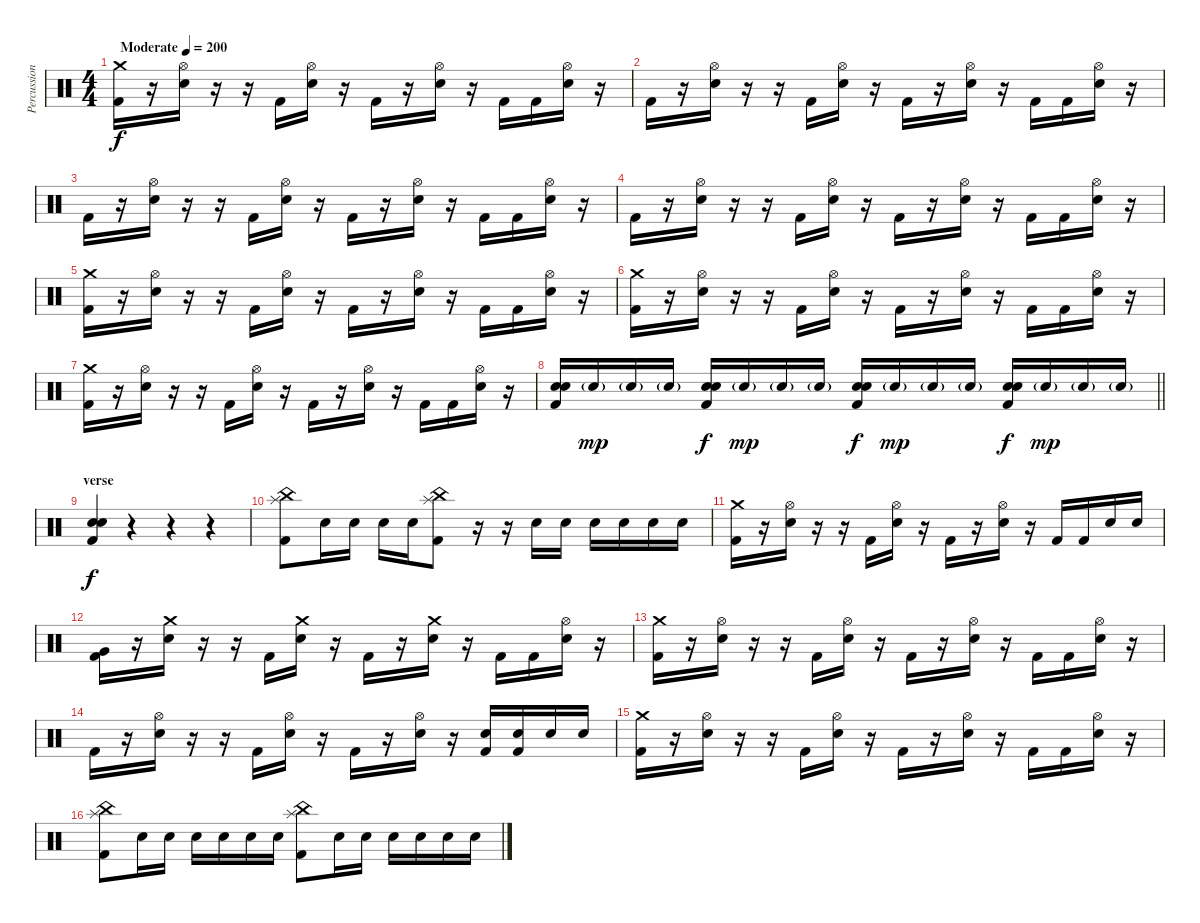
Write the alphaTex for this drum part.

\track ("Percussion" "Percussion") {instrument percussion}
\staff {score}
\articulation defaults
\ts (4 4)
\tempo (200 "Moderate")
\clef neutral
\ks c
("Crash medium (hit)" "Kick (hit) 2").16{dy f} r.16 ("Hi-Hat (open)" "Electric Snare (hit)").16 r.16 r.16 "Kick (hit) 2".16 ("Hi-Hat (open)" "Electric Snare (hit)").16 r.16 "Kick (hit) 2".16 r.16 ("Hi-Hat (open)" "Electric Snare (hit)").16 r.16 "Kick (hit) 2".16 "Kick (hit) 2".16 ("Hi-Hat (open)" "Electric Snare (hit)").16 r.16 |
"Kick (hit) 2".16 r.16 ("Hi-Hat (open)" "Electric Snare (hit)").16 r.16 r.16 "Kick (hit) 2".16 ("Hi-Hat (open)" "Electric Snare (hit)").16 r.16 "Kick (hit) 2".16 r.16 ("Hi-Hat (open)" "Electric Snare (hit)").16 r.16 "Kick (hit) 2".16 "Kick (hit) 2".16 ("Hi-Hat (open)" "Electric Snare (hit)").16 r.16 |
"Kick (hit) 2".16 r.16 ("Hi-Hat (open)" "Electric Snare (hit)").16 r.16 r.16 "Kick (hit) 2".16 ("Hi-Hat (open)" "Electric Snare (hit)").16 r.16 "Kick (hit) 2".16 r.16 ("Hi-Hat (open)" "Electric Snare (hit)").16 r.16 "Kick (hit) 2".16 "Kick (hit) 2".16 ("Hi-Hat (open)" "Electric Snare (hit)").16 r.16 |
"Kick (hit) 2".16 r.16 ("Hi-Hat (open)" "Electric Snare (hit)").16 r.16 r.16 "Kick (hit) 2".16 ("Hi-Hat (open)" "Electric Snare (hit)").16 r.16 "Kick (hit) 2".16 r.16 ("Hi-Hat (open)" "Electric Snare (hit)").16 r.16 "Kick (hit) 2".16 "Kick (hit) 2".16 ("Hi-Hat (open)" "Electric Snare (hit)").16 r.16 |
("Crash medium (hit)" "Kick (hit) 2").16 r.16 ("Hi-Hat (open)" "Electric Snare (hit)").16 r.16 r.16 "Kick (hit) 2".16 ("Hi-Hat (open)" "Electric Snare (hit)").16 r.16 "Kick (hit) 2".16 r.16 ("Hi-Hat (open)" "Electric Snare (hit)").16 r.16 "Kick (hit) 2".16 "Kick (hit) 2".16 ("Hi-Hat (open)" "Electric Snare (hit)").16 r.16 |
("Kick (hit) 2" "Crash medium (hit)").16 r.16 ("Hi-Hat (open)" "Electric Snare (hit)").16 r.16 r.16 "Kick (hit) 2".16 ("Hi-Hat (open)" "Electric Snare (hit)").16 r.16 "Kick (hit) 2".16 r.16 ("Hi-Hat (open)" "Electric Snare (hit)").16 r.16 "Kick (hit) 2".16 "Kick (hit) 2".16 ("Hi-Hat (open)" "Electric Snare (hit)").16 r.16 |
("Crash medium (hit)" "Kick (hit) 2").16 r.16 ("Hi-Hat (open)" "Electric Snare (hit)").16 r.16 r.16 "Kick (hit) 2".16 ("Hi-Hat (open)" "Electric Snare (hit)").16 r.16 "Kick (hit) 2".16 r.16 ("Hi-Hat (open)" "Electric Snare (hit)").16 r.16 "Kick (hit) 2".16 "Kick (hit) 2".16 ("Hi-Hat (open)" "Electric Snare (hit)").16 r.16 |
\barLineRight lightlight
("Electric Snare (hit)" "Electric Snare (hit)" "Kick (hit) 2").16 "Electric Snare (hit)"{g}.16{dy mp} "Electric Snare (hit)"{g}.16 "Electric Snare (hit)"{g}.16 ("Electric Snare (hit)" "Electric Snare (hit)" "Kick (hit) 2").16{dy f} "Electric Snare (hit)"{g}.16{dy mp} "Electric Snare (hit)"{g}.16 "Electric Snare (hit)"{g}.16 ("Electric Snare (hit)" "Electric Snare (hit)" "Kick (hit) 2").16{dy f} "Electric Snare (hit)"{g}.16{dy mp} "Electric Snare (hit)"{g}.16 "Electric Snare (hit)"{g}.16 ("Electric Snare (hit)" "Electric Snare (hit)" "Kick (hit) 2").16{dy f} "Electric Snare (hit)"{g}.16{dy mp} "Electric Snare (hit)"{g}.16 "Electric Snare (hit)"{g}.16 |
\section ("" "verse")
("Kick (hit) 2" "Electric Snare (hit)" "Electric Snare (hit)").4{bd 60 dy f} r.4 r.4 r.4 |
("Kick (hit) 2" "China (hit)" "Splash (hit)").8 "Electric Snare (hit)".16 "Electric Snare (hit)".16 "Electric Snare (hit)".16 "Electric Snare (hit)".16 ("Kick (hit) 2" "China (hit)" "Splash (hit)").8 r.16 r.16 "Electric Snare (hit)".16 "Electric Snare (hit)".16 "Electric Snare (hit)".16 "Electric Snare (hit)".16 "Electric Snare (hit)".16 "Electric Snare (hit)".16 |
("Kick (hit) 2" "Crash medium (hit)").16 r.16 ("Hi-Hat (open)" "Electric Snare (hit)").16 r.16 r.16 "Kick (hit) 2".16 ("Hi-Hat (open)" "Electric Snare (hit)").16 r.16 "Kick (hit) 2".16 r.16 ("Hi-Hat (open)" "Electric Snare (hit)").16 r.16 "Kick (hit) 2".16 "Kick (hit) 2".16 "Electric Snare (hit)".16 "Electric Snare (hit)".16 |
("Kick (hit) 2" "Very Low Tom (hit)").16 r.16 ("Crash medium (hit)" "Electric Snare (hit)").16 r.16 r.16 "Kick (hit) 2".16 ("Crash medium (hit)" "Electric Snare (hit)").16 r.16 "Kick (hit) 2".16 r.16 ("Crash medium (hit)" "Electric Snare (hit)").16 r.16 "Kick (hit) 2".16 "Kick (hit) 2".16 ("Hi-Hat (open)" "Electric Snare (hit)").16 r.16 |
("Crash medium (hit)" "Kick (hit) 2").16 r.16 ("Hi-Hat (open)" "Electric Snare (hit)").16 r.16 r.16 "Kick (hit) 2".16 ("Hi-Hat (open)" "Electric Snare (hit)").16 r.16 "Kick (hit) 2".16 r.16 ("Hi-Hat (open)" "Electric Snare (hit)").16 r.16 "Kick (hit) 2".16 "Kick (hit) 2".16 ("Hi-Hat (open)" "Electric Snare (hit)").16 r.16 |
"Kick (hit) 2".16 r.16 ("Hi-Hat (open)" "Electric Snare (hit)").16 r.16 r.16 "Kick (hit) 2".16 ("Hi-Hat (open)" "Electric Snare (hit)").16 r.16 "Kick (hit) 2".16 r.16 ("Hi-Hat (open)" "Electric Snare (hit)").16 r.16 ("Electric Snare (hit)" "Kick (hit) 2").16 ("Electric Snare (hit)" "Kick (hit) 2").16 "Electric Snare (hit)".16 "Electric Snare (hit)".16 |
("Crash medium (hit)" "Kick (hit) 2").16 r.16 ("Hi-Hat (open)" "Electric Snare (hit)").16 r.16 r.16 "Kick (hit) 2".16 ("Hi-Hat (open)" "Electric Snare (hit)").16 r.16 "Kick (hit) 2".16 r.16 ("Hi-Hat (open)" "Electric Snare (hit)").16 r.16 "Kick (hit) 2".16 "Kick (hit) 2".16 ("Hi-Hat (open)" "Electric Snare (hit)").16 r.16 |
("Kick (hit) 2" "China (hit)" "Splash (hit)").8 "Electric Snare (hit)".16 "Electric Snare (hit)".16 "Electric Snare (hit)".16 "Electric Snare (hit)".16 "Electric Snare (hit)".16 "Electric Snare (hit)".16 ("Kick (hit) 2" "China (hit)" "Splash (hit)").8 "Electric Snare (hit)".16 "Electric Snare (hit)".16 "Electric Snare (hit)".16 "Electric Snare (hit)".16 "Electric Snare (hit)".16 "Electric Snare (hit)".16
